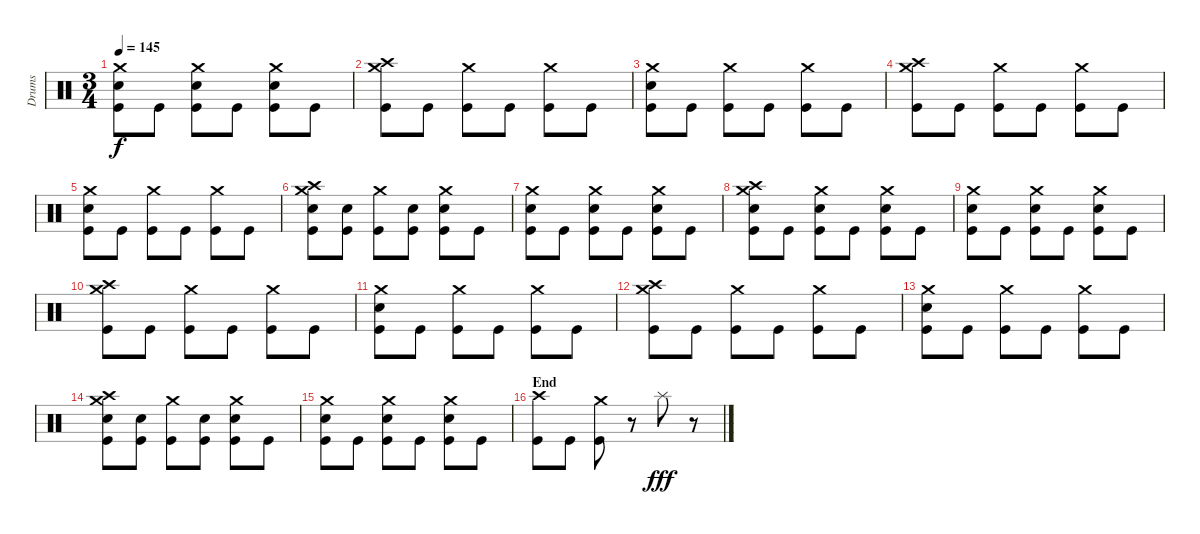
\track ("Drums" "Drums") {instrument percussion}
\staff {score}
\articulation defaults
\ts (3 4)
\tempo 145
\clef neutral
\ks c
("Crash medium (hit)" "Electric Snare (hit)" "Kick (hit)").8{dy f} "Kick (hit)".8 ("Crash medium (hit)" "Electric Snare (hit)" "Kick (hit)").8 "Kick (hit)".8 ("Crash medium (hit)" "Electric Snare (hit)" "Kick (hit)").8 "Kick (hit)".8 |
("Crash high (hit)" "Crash medium (hit)" "Kick (hit)").8 "Kick (hit)".8 ("Crash medium (hit)" "Kick (hit)").8 "Kick (hit)".8 ("Crash medium (hit)" "Kick (hit)").8 "Kick (hit)".8 |
("Crash medium (hit)" "Electric Snare (hit)" "Kick (hit)").8 "Kick (hit)".8 ("Crash medium (hit)" "Kick (hit)").8 "Kick (hit)".8 ("Crash medium (hit)" "Kick (hit)").8 "Kick (hit)".8 |
("Crash high (hit)" "Crash medium (hit)" "Kick (hit)").8 "Kick (hit)".8 ("Crash medium (hit)" "Kick (hit)").8 "Kick (hit)".8 ("Crash medium (hit)" "Kick (hit)").8 "Kick (hit)".8 |
("Crash medium (hit)" "Electric Snare (hit)" "Kick (hit)").8 "Kick (hit)".8 ("Crash medium (hit)" "Kick (hit)").8 "Kick (hit)".8 ("Crash medium (hit)" "Kick (hit)").8 "Kick (hit)".8 |
("Crash high (hit)" "Crash medium (hit)" "Electric Snare (hit)" "Kick (hit)").8 ("Electric Snare (hit)" "Kick (hit)").8 ("Crash medium (hit)" "Kick (hit)").8 ("Electric Snare (hit)" "Kick (hit)").8 ("Crash medium (hit)" "Electric Snare (hit)" "Kick (hit)").8 "Kick (hit)".8 |
("Crash medium (hit)" "Electric Snare (hit)" "Kick (hit)").8 "Kick (hit)".8 ("Crash medium (hit)" "Electric Snare (hit)" "Kick (hit)").8 "Kick (hit)".8 ("Crash medium (hit)" "Electric Snare (hit)" "Kick (hit)").8 "Kick (hit)".8 |
("Crash high (hit)" "Crash medium (hit)" "Electric Snare (hit)" "Kick (hit)").8 "Kick (hit)".8 ("Crash medium (hit)" "Electric Snare (hit)" "Kick (hit)").8 "Kick (hit)".8 ("Crash medium (hit)" "Electric Snare (hit)" "Kick (hit)").8 "Kick (hit)".8 |
("Crash medium (hit)" "Electric Snare (hit)" "Kick (hit)").8 "Kick (hit)".8 ("Crash medium (hit)" "Electric Snare (hit)" "Kick (hit)").8 "Kick (hit)".8 ("Crash medium (hit)" "Electric Snare (hit)" "Kick (hit)").8 "Kick (hit)".8 |
("Crash high (hit)" "Crash medium (hit)" "Kick (hit)").8 "Kick (hit)".8 ("Crash medium (hit)" "Kick (hit)").8 "Kick (hit)".8 ("Crash medium (hit)" "Kick (hit)").8 "Kick (hit)".8 |
("Crash medium (hit)" "Electric Snare (hit)" "Kick (hit)").8 "Kick (hit)".8 ("Crash medium (hit)" "Kick (hit)").8 "Kick (hit)".8 ("Crash medium (hit)" "Kick (hit)").8 "Kick (hit)".8 |
("Crash high (hit)" "Crash medium (hit)" "Kick (hit)").8 "Kick (hit)".8 ("Crash medium (hit)" "Kick (hit)").8 "Kick (hit)".8 ("Crash medium (hit)" "Kick (hit)").8 "Kick (hit)".8 |
("Crash medium (hit)" "Electric Snare (hit)" "Kick (hit)").8 "Kick (hit)".8 ("Crash medium (hit)" "Kick (hit)").8 "Kick (hit)".8 ("Crash medium (hit)" "Kick (hit)").8 "Kick (hit)".8 |
("Crash high (hit)" "Crash medium (hit)" "Electric Snare (hit)" "Kick (hit)").8 ("Electric Snare (hit)" "Kick (hit)").8 ("Crash medium (hit)" "Kick (hit)").8 ("Electric Snare (hit)" "Kick (hit)").8 ("Crash medium (hit)" "Electric Snare (hit)" "Kick (hit)").8 "Kick (hit)".8 |
("Crash medium (hit)" "Electric Snare (hit)" "Kick (hit)").8 "Kick (hit)".8 ("Crash medium (hit)" "Electric Snare (hit)" "Kick (hit)").8 "Kick (hit)".8 ("Crash medium (hit)" "Electric Snare (hit)" "Kick (hit)").8 "Kick (hit)".8 |
\section ("" "End")
("Crash high (hit)" "Kick (hit)").8 "Kick (hit)".8 ("Crash medium (hit)" "Kick (hit)").8 r.8 "Splash (hit)".8{dy fff} r.8
